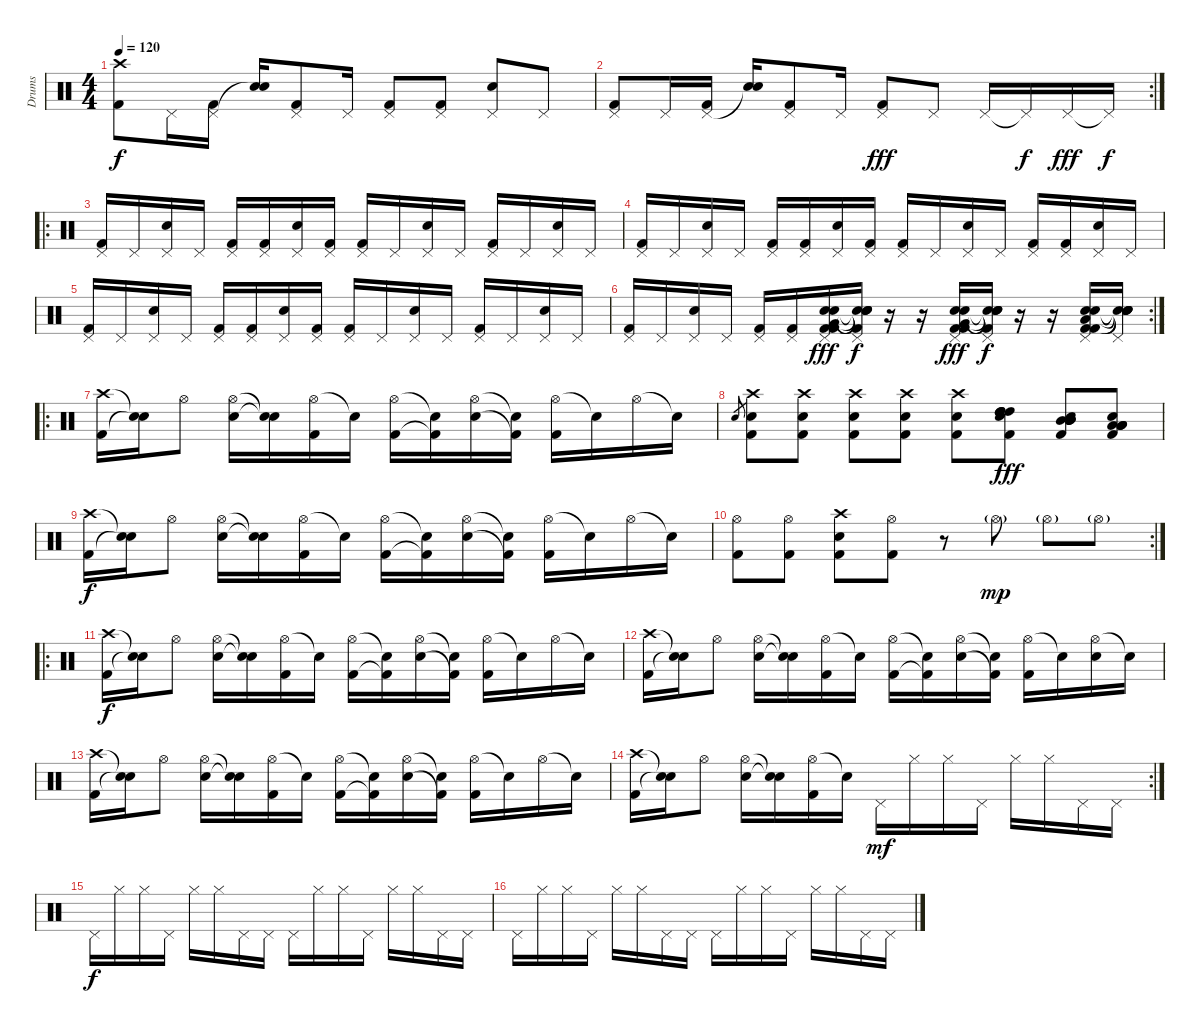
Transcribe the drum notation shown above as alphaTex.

\track ("Drums" "Drums") {instrument percussion}
\staff {score}
\articulation defaults
\ts (4 4)
\tempo 120
\clef neutral
\ks c
("Crash high (hit)" "Kick (hit) 2").8{dy f} "Pedal Hi-Hat (hit)".16 ("Pedal Hi-Hat (hit)" "Kick (hit) 2").16 ("Snare (hit)"{t} "Snare (hit) 2").16 ("Pedal Hi-Hat (hit)" "Kick (hit) 2").8 "Pedal Hi-Hat (hit)".16 ("Pedal Hi-Hat (hit)" "Kick (hit) 2").8 ("Pedal Hi-Hat (hit)" "Kick (hit) 2").8 ("Pedal Hi-Hat (hit)" "Snare (hit) 2").8 "Pedal Hi-Hat (hit)".8 |
\rc 2
("Pedal Hi-Hat (hit)" "Kick (hit) 2").8 "Pedal Hi-Hat (hit)".16 ("Pedal Hi-Hat (hit)" "Kick (hit) 2").16 ("Snare (hit)"{t} "Snare (hit) 2").16 ("Pedal Hi-Hat (hit)" "Kick (hit) 2").8 "Pedal Hi-Hat (hit)".16 ("Pedal Hi-Hat (hit)" "Kick (hit) 2").8{dy fff} "Pedal Hi-Hat (hit)".8 "Pedal Hi-Hat (hit)".16 "Pedal Hi-Hat (hit)"{t}.16{dy f} "Pedal Hi-Hat (hit)".16{dy fff} "Pedal Hi-Hat (hit)"{t}.16{dy f} |
\ro
("Pedal Hi-Hat (hit)" "Kick (hit) 2").16 "Pedal Hi-Hat (hit)".16 ("Pedal Hi-Hat (hit)" "Electric Snare (hit)").16 "Pedal Hi-Hat (hit)".16 ("Pedal Hi-Hat (hit)" "Kick (hit) 2").16 ("Pedal Hi-Hat (hit)" "Kick (hit) 2").16 ("Pedal Hi-Hat (hit)" "Electric Snare (hit)").16 ("Pedal Hi-Hat (hit)" "Kick (hit) 2").16 ("Pedal Hi-Hat (hit)" "Kick (hit) 2").16 "Pedal Hi-Hat (hit)".16 ("Pedal Hi-Hat (hit)" "Electric Snare (hit)").16 "Pedal Hi-Hat (hit)".16 ("Pedal Hi-Hat (hit)" "Kick (hit) 2").16 "Pedal Hi-Hat (hit)".16 ("Pedal Hi-Hat (hit)" "Electric Snare (hit)").16 "Pedal Hi-Hat (hit)".16 |
("Pedal Hi-Hat (hit)" "Kick (hit) 2").16 "Pedal Hi-Hat (hit)".16 ("Pedal Hi-Hat (hit)" "Electric Snare (hit)").16 "Pedal Hi-Hat (hit)".16 ("Pedal Hi-Hat (hit)" "Kick (hit) 2").16 ("Pedal Hi-Hat (hit)" "Kick (hit) 2").16 ("Pedal Hi-Hat (hit)" "Electric Snare (hit)").16 ("Pedal Hi-Hat (hit)" "Kick (hit) 2").16 ("Pedal Hi-Hat (hit)" "Kick (hit) 2").16 "Pedal Hi-Hat (hit)".16 ("Pedal Hi-Hat (hit)" "Electric Snare (hit)").16 "Pedal Hi-Hat (hit)".16 ("Pedal Hi-Hat (hit)" "Kick (hit) 2").16 ("Pedal Hi-Hat (hit)" "Kick (hit) 2").16 ("Pedal Hi-Hat (hit)" "Electric Snare (hit)").16 "Pedal Hi-Hat (hit)".16 |
("Pedal Hi-Hat (hit)" "Kick (hit) 2").16 "Pedal Hi-Hat (hit)".16 ("Pedal Hi-Hat (hit)" "Electric Snare (hit)").16 "Pedal Hi-Hat (hit)".16 ("Pedal Hi-Hat (hit)" "Kick (hit) 2").16 ("Pedal Hi-Hat (hit)" "Kick (hit) 2").16 ("Pedal Hi-Hat (hit)" "Electric Snare (hit)").16 ("Pedal Hi-Hat (hit)" "Kick (hit) 2").16 ("Pedal Hi-Hat (hit)" "Kick (hit) 2").16 "Pedal Hi-Hat (hit)".16 ("Pedal Hi-Hat (hit)" "Electric Snare (hit)").16 "Pedal Hi-Hat (hit)".16 ("Pedal Hi-Hat (hit)" "Kick (hit) 2").16 "Pedal Hi-Hat (hit)".16 ("Pedal Hi-Hat (hit)" "Electric Snare (hit)").16 "Pedal Hi-Hat (hit)".16 |
\rc 2
("Pedal Hi-Hat (hit)" "Kick (hit) 2").16 "Pedal Hi-Hat (hit)".16 ("Pedal Hi-Hat (hit)" "Electric Snare (hit)").16 "Pedal Hi-Hat (hit)".16 ("Pedal Hi-Hat (hit)" "Kick (hit) 2").16 ("Pedal Hi-Hat (hit)" "Kick (hit) 2").16 ("Pedal Hi-Hat (hit)" "Kick (hit) 2" "Kick (hit) 2" "Electric Snare (hit)" "Very Low Tom (hit)" "Electric Snare (hit)").16{dy fff} ("Pedal Hi-Hat (hit)" "Snare (hit)"{t} "Snare (hit)"{t} "Snare (hit)"{t} "Snare (hit)"{t} "Kick (hit) 2"{t}).16{dy f} r.16 r.16 ("Pedal Hi-Hat (hit)" "Kick (hit) 2" "Kick (hit) 2" "Electric Snare (hit)" "Very Low Tom (hit)" "Electric Snare (hit)").16{dy fff} ("Pedal Hi-Hat (hit)" "Snare (hit)"{t} "Snare (hit)"{t} "Snare (hit)"{t} "Snare (hit)"{t} "Kick (hit) 2"{t}).16{dy f} r.16 r.16 ("Pedal Hi-Hat (hit)" "Kick (hit) 2" "Kick (hit) 2" "Electric Snare (hit)" "Low Floor Tom (hit)" "Electric Snare (hit)").16 ("Pedal Hi-Hat (hit)" "Snare (hit)"{t} "Snare (hit)"{t} "Snare (hit)"{t} "Snare (hit)"{t} "Electric Snare (hit)"{t}).16 |
\ro
("Crash high (hit)" "Kick (hit) 2").16 ("Snare (hit)"{t} "Snare (hit)"{t}).16 "Hi-Hat (open)".8 ("Hi-Hat (open)" "Electric Snare (hit)").16 ("Snare (hit)"{t} "Snare (hit)"{t}).16 ("Hi-Hat (open)" "Kick (hit) 2").16 "Snare (hit)"{t}.16 ("Hi-Hat (open)" "Kick (hit) 2").16 ("Snare (hit)"{t} "Kick (hit) 2"{t}).16 ("Hi-Hat (open)" "Electric Snare (hit)").16 ("Snare (hit)"{t} "Kick (hit) 2"{t}).16 ("Hi-Hat (open)" "Kick (hit) 2").16 "Snare (hit)"{t}.16 "Hi-Hat (open)".16 "Snare (hit)"{t}.16 |
"Electric Snare (hit)".8{gr} ("Crash high (hit)" "Kick (hit) 2" "Electric Snare (hit)").8 ("Crash high (hit)" "Kick (hit) 2" "Electric Snare (hit)").8 ("Crash high (hit)" "Kick (hit) 2" "Electric Snare (hit)").8 ("Crash high (hit)" "Kick (hit) 2" "Electric Snare (hit)").8 ("Crash high (hit)" "Kick (hit) 2" "Electric Snare (hit)").8 ("High Tom (hit)" "High Tom (hit)" "High Tom (hit)" "High Tom (hit)" "Kick (hit) 2" "Electric Snare (hit)").8{dy fff} ("Mid Tom (hit)" "Mid Tom (hit)" "Mid Tom (hit)" "Mid Tom (hit)" "Kick (hit) 2" "Electric Snare (hit)").8 ("Low Tom (hit)" "Low Tom (hit)" "Low Tom (hit)" "Low Tom (hit)" "Kick (hit) 2" "Electric Snare (hit)").8 |
("Crash high (hit)" "Kick (hit) 2").16{dy f} ("Snare (hit)"{t} "Snare (hit)"{t}).16 "Hi-Hat (open)".8 ("Hi-Hat (open)" "Electric Snare (hit)").16 ("Snare (hit)"{t} "Snare (hit)"{t}).16 ("Hi-Hat (open)" "Kick (hit) 2").16 "Snare (hit)"{t}.16 ("Hi-Hat (open)" "Kick (hit) 2").16 ("Snare (hit)"{t} "Kick (hit) 2"{t}).16 ("Hi-Hat (open)" "Electric Snare (hit)").16 ("Snare (hit)"{t} "Kick (hit) 2"{t}).16 ("Hi-Hat (open)" "Kick (hit) 2").16 "Snare (hit)"{t}.16 "Hi-Hat (open)".16 "Snare (hit)"{t}.16 |
\rc 2
("Hi-Hat (open)" "Kick (hit) 2").8 ("Hi-Hat (open)" "Kick (hit) 2").8 ("Crash high (hit)" "Kick (hit) 2" "Electric Snare (hit)").8 ("Hi-Hat (open)" "Kick (hit) 2").8 r.8 "Hi-Hat (open)"{g}.8{dy mp} "Hi-Hat (open)"{g}.8 "Hi-Hat (open)"{g}.8 |
\ro
("Crash high (hit)" "Kick (hit) 2").16{dy f} ("Snare (hit)"{t} "Snare (hit)"{t}).16 "Hi-Hat (open)".8 ("Hi-Hat (open)" "Electric Snare (hit)").16 ("Snare (hit)"{t} "Snare (hit)"{t}).16 ("Hi-Hat (open)" "Kick (hit) 2").16 "Snare (hit)"{t}.16 ("Hi-Hat (open)" "Kick (hit) 2").16 ("Snare (hit)"{t} "Kick (hit) 2"{t}).16 ("Hi-Hat (open)" "Electric Snare (hit)").16 ("Snare (hit)"{t} "Kick (hit) 2"{t}).16 ("Hi-Hat (open)" "Kick (hit) 2").16 "Snare (hit)"{t}.16 "Hi-Hat (open)".16 "Snare (hit)"{t}.16 |
("Crash high (hit)" "Kick (hit) 2").16 ("Snare (hit)"{t} "Snare (hit)"{t}).16 "Hi-Hat (open)".8 ("Hi-Hat (open)" "Electric Snare (hit)").16 ("Snare (hit)"{t} "Snare (hit)"{t}).16 ("Hi-Hat (open)" "Kick (hit) 2").16 "Snare (hit)"{t}.16 ("Hi-Hat (open)" "Kick (hit) 2").16 ("Snare (hit)"{t} "Kick (hit) 2"{t}).16 ("Hi-Hat (open)" "Electric Snare (hit)").16 ("Snare (hit)"{t} "Kick (hit) 2"{t}).16 ("Hi-Hat (open)" "Kick (hit) 2").16 "Snare (hit)"{t}.16 ("Hi-Hat (open)" "Electric Snare (hit)").16 "Snare (hit)"{t}.16 |
("Crash high (hit)" "Kick (hit) 2").16 ("Snare (hit)"{t} "Snare (hit)"{t}).16 "Hi-Hat (open)".8 ("Hi-Hat (open)" "Electric Snare (hit)").16 ("Snare (hit)"{t} "Snare (hit)"{t}).16 ("Hi-Hat (open)" "Kick (hit) 2").16 "Snare (hit)"{t}.16 ("Hi-Hat (open)" "Kick (hit) 2").16 ("Snare (hit)"{t} "Kick (hit) 2"{t}).16 ("Hi-Hat (open)" "Electric Snare (hit)").16 ("Snare (hit)"{t} "Kick (hit) 2"{t}).16 ("Hi-Hat (open)" "Kick (hit) 2").16 "Snare (hit)"{t}.16 "Hi-Hat (open)".16 "Snare (hit)"{t}.16 |
\rc 2
("Crash high (hit)" "Kick (hit) 2").16 ("Snare (hit)"{t} "Snare (hit)"{t}).16 "Hi-Hat (open)".8 ("Hi-Hat (open)" "Electric Snare (hit)").16 ("Snare (hit)"{t} "Snare (hit)"{t}).16 ("Hi-Hat (open)" "Kick (hit) 2").16 "Snare (hit)"{t}.16 "Pedal Hi-Hat (hit)".16{dy mf} "Hi-Hat (closed)".16 "Hi-Hat (closed)".16 "Pedal Hi-Hat (hit)".16 "Hi-Hat (closed)".16 "Hi-Hat (closed)".16 "Pedal Hi-Hat (hit)".16 "Pedal Hi-Hat (hit)".16 |
"Pedal Hi-Hat (hit)".16{dy f} "Hi-Hat (closed)".16 "Hi-Hat (closed)".16 "Pedal Hi-Hat (hit)".16 "Hi-Hat (closed)".16 "Hi-Hat (closed)".16 "Pedal Hi-Hat (hit)".16 "Pedal Hi-Hat (hit)".16 "Pedal Hi-Hat (hit)".16 "Hi-Hat (closed)".16 "Hi-Hat (closed)".16 "Pedal Hi-Hat (hit)".16 "Hi-Hat (closed)".16 "Hi-Hat (closed)".16 "Pedal Hi-Hat (hit)".16 "Pedal Hi-Hat (hit)".16 |
"Pedal Hi-Hat (hit)".16 "Hi-Hat (closed)".16 "Hi-Hat (closed)".16 "Pedal Hi-Hat (hit)".16 "Hi-Hat (closed)".16 "Hi-Hat (closed)".16 "Pedal Hi-Hat (hit)".16 "Pedal Hi-Hat (hit)".16 "Pedal Hi-Hat (hit)".16 "Hi-Hat (closed)".16 "Hi-Hat (closed)".16 "Pedal Hi-Hat (hit)".16 "Hi-Hat (closed)".16 "Hi-Hat (closed)".16 "Pedal Hi-Hat (hit)".16 "Pedal Hi-Hat (hit)".16
